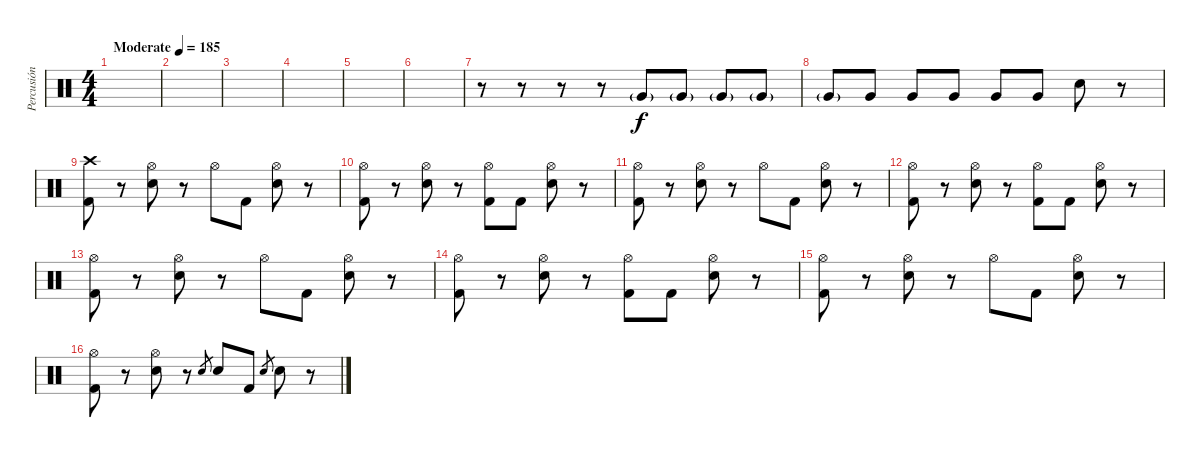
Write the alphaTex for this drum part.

\track ("Percusión" "Percusión") {instrument percussion}
\staff {score}
\articulation defaults
\ts (4 4)
\tempo (185 "Moderate")
\clef neutral
\ks c
|
|
|
|
|
|
r.8 r.8 r.8 r.8 "Very Low Tom (hit)"{g}.8 "Very Low Tom (hit)"{g}.8 "Very Low Tom (hit)"{g}.8 "Very Low Tom (hit)"{g}.8 |
"Very Low Tom (hit)"{g}.8 "Very Low Tom (hit)".8{dy f} "Very Low Tom (hit)".8 "Very Low Tom (hit)".8 "Very Low Tom (hit)".8 "Very Low Tom (hit)".8 "Electric Snare (hit)".8 r.8 |
("Crash high (hit)" "Kick (hit) 2").8 r.8 ("Hi-Hat (open)" "Electric Snare (hit)").8 r.8 "Hi-Hat (open)".8 "Kick (hit) 2".8 ("Hi-Hat (open)" "Electric Snare (hit)").8 r.8 |
("Hi-Hat (open)" "Kick (hit) 2").8 r.8 ("Hi-Hat (open)" "Electric Snare (hit)").8 r.8 ("Hi-Hat (open)" "Kick (hit) 2").8 "Kick (hit) 2".8 ("Hi-Hat (open)" "Electric Snare (hit)").8 r.8 |
("Hi-Hat (open)" "Kick (hit) 2").8 r.8 ("Hi-Hat (open)" "Electric Snare (hit)").8 r.8 "Hi-Hat (open)".8 "Kick (hit) 2".8 ("Hi-Hat (open)" "Electric Snare (hit)").8 r.8 |
("Hi-Hat (open)" "Kick (hit) 2").8 r.8 ("Hi-Hat (open)" "Electric Snare (hit)").8 r.8 ("Hi-Hat (open)" "Kick (hit) 2").8 "Kick (hit) 2".8 ("Hi-Hat (open)" "Electric Snare (hit)").8 r.8 |
("Hi-Hat (open)" "Kick (hit) 2").8 r.8 ("Hi-Hat (open)" "Electric Snare (hit)").8 r.8 "Hi-Hat (open)".8 "Kick (hit) 2".8 ("Hi-Hat (open)" "Electric Snare (hit)").8 r.8 |
("Hi-Hat (open)" "Kick (hit) 2").8 r.8 ("Hi-Hat (open)" "Electric Snare (hit)").8 r.8 ("Hi-Hat (open)" "Kick (hit) 2").8 "Kick (hit) 2".8 ("Hi-Hat (open)" "Electric Snare (hit)").8 r.8 |
("Hi-Hat (open)" "Kick (hit) 2").8 r.8 ("Hi-Hat (open)" "Electric Snare (hit)").8 r.8 "Hi-Hat (open)".8 "Kick (hit) 2".8 ("Hi-Hat (open)" "Electric Snare (hit)").8 r.8 |
("Hi-Hat (open)" "Kick (hit) 2").8 r.8 ("Hi-Hat (open)" "Electric Snare (hit)").8 r.8 "Electric Snare (hit)".8{gr} "Electric Snare (hit)".8 "Kick (hit) 2".8 "Electric Snare (hit)".8{gr} "Electric Snare (hit)".8 r.8
